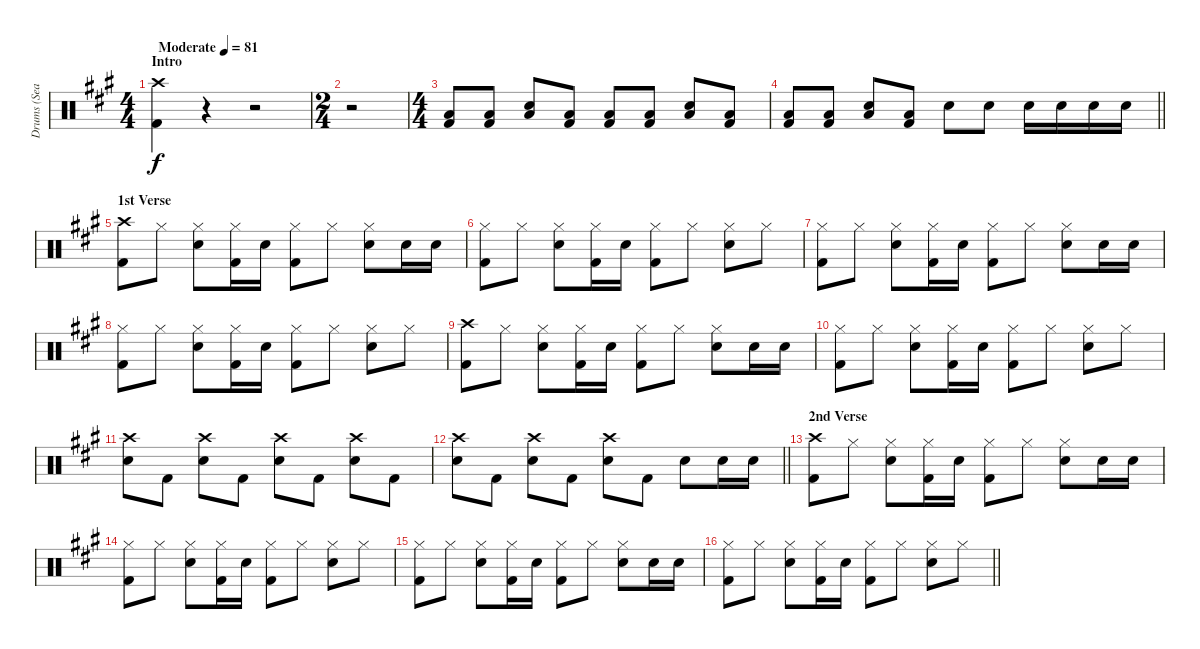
\track ("Drums (Sean)" "Drums (Sea") {instrument percussion}
\staff {score}
\articulation defaults
\ts (4 4)
\section ("" "Intro")
\tempo (81 "Moderate")
\clef neutral
\ks f#minor
("Crash high (hit)" "Kick (hit) 2").4{dy f} r.4 r.2 |
\ts (2 4)
r.2 |
\ts (4 4)
("Low Floor Tom (hit)" "Kick (hit) 2").8 ("Low Floor Tom (hit)" "Kick (hit) 2").8 ("Low Floor Tom (hit)" "Snare (hit) 2").8 ("Low Floor Tom (hit)" "Kick (hit) 2").8 ("Low Floor Tom (hit)" "Kick (hit) 2").8 ("Low Floor Tom (hit)" "Kick (hit) 2").8 ("Low Floor Tom (hit)" "Snare (hit) 2").8 ("Low Floor Tom (hit)" "Kick (hit) 2").8 |
\barLineRight lightlight
("Low Floor Tom (hit)" "Kick (hit) 2").8 ("Low Floor Tom (hit)" "Kick (hit) 2").8 ("Low Floor Tom (hit)" "Snare (hit) 2").8 ("Low Floor Tom (hit)" "Kick (hit) 2").8 "Snare (hit) 2".8 "Snare (hit) 2".8 "Snare (hit) 2".16 "Snare (hit) 2".16 "Snare (hit) 2".16 "Snare (hit) 2".16 |
\section ("" "1st Verse")
("Crash high (hit)" "Kick (hit) 2").8 "Hi-Hat (closed)".8 ("Hi-Hat (closed)" "Snare (hit) 2").8 ("Hi-Hat (closed)" "Kick (hit) 2").16 "Snare (hit) 2".16 ("Hi-Hat (closed)" "Kick (hit) 2").8 "Hi-Hat (closed)".8 ("Hi-Hat (closed)" "Snare (hit) 2").8 "Snare (hit) 2".16 "Snare (hit) 2".16 |
("Hi-Hat (closed)" "Kick (hit) 2").8 "Hi-Hat (closed)".8 ("Hi-Hat (closed)" "Snare (hit) 2").8 ("Hi-Hat (closed)" "Kick (hit) 2").16 "Snare (hit) 2".16 ("Hi-Hat (closed)" "Kick (hit) 2").8 "Hi-Hat (closed)".8 ("Hi-Hat (closed)" "Snare (hit) 2").8 "Hi-Hat (closed)".8 |
("Hi-Hat (closed)" "Kick (hit) 2").8 "Hi-Hat (closed)".8 ("Hi-Hat (closed)" "Snare (hit) 2").8 ("Hi-Hat (closed)" "Kick (hit) 2").16 "Snare (hit) 2".16 ("Hi-Hat (closed)" "Kick (hit) 2").8 "Hi-Hat (closed)".8 ("Hi-Hat (closed)" "Snare (hit) 2").8 "Snare (hit) 2".16 "Snare (hit) 2".16 |
("Hi-Hat (closed)" "Kick (hit) 2").8 "Hi-Hat (closed)".8 ("Hi-Hat (closed)" "Snare (hit) 2").8 ("Hi-Hat (closed)" "Kick (hit) 2").16 "Snare (hit) 2".16 ("Hi-Hat (closed)" "Kick (hit) 2").8 "Hi-Hat (closed)".8 ("Hi-Hat (closed)" "Snare (hit) 2").8 "Hi-Hat (closed)".8 |
("Crash high (hit)" "Kick (hit) 2").8 "Hi-Hat (closed)".8 ("Hi-Hat (closed)" "Snare (hit) 2").8 ("Hi-Hat (closed)" "Kick (hit) 2").16 "Snare (hit) 2".16 ("Hi-Hat (closed)" "Kick (hit) 2").8 "Hi-Hat (closed)".8 ("Hi-Hat (closed)" "Snare (hit) 2").8 "Snare (hit) 2".16 "Snare (hit) 2".16 |
("Hi-Hat (closed)" "Kick (hit) 2").8 "Hi-Hat (closed)".8 ("Hi-Hat (closed)" "Snare (hit) 2").8 ("Hi-Hat (closed)" "Kick (hit) 2").16 "Snare (hit) 2".16 ("Hi-Hat (closed)" "Kick (hit) 2").8 "Hi-Hat (closed)".8 ("Hi-Hat (closed)" "Snare (hit) 2").8 "Hi-Hat (closed)".8 |
("Crash high (hit)" "Snare (hit) 2").8 "Kick (hit) 2".8 ("Crash high (hit)" "Snare (hit) 2").8 "Kick (hit) 2".8 ("Crash high (hit)" "Snare (hit) 2").8 "Kick (hit) 2".8 ("Crash high (hit)" "Snare (hit) 2").8 "Kick (hit) 2".8 |
\barLineRight lightlight
("Crash high (hit)" "Snare (hit) 2").8 "Kick (hit) 2".8 ("Crash high (hit)" "Snare (hit) 2").8 "Kick (hit) 2".8 ("Crash high (hit)" "Snare (hit) 2").8 "Kick (hit) 2".8 "Snare (hit) 2".8 "Snare (hit) 2".16 "Snare (hit) 2".16 |
\section ("" "2nd Verse")
("Crash high (hit)" "Kick (hit) 2").8 "Hi-Hat (closed)".8 ("Hi-Hat (closed)" "Snare (hit) 2").8 ("Hi-Hat (closed)" "Kick (hit) 2").16 "Snare (hit) 2".16 ("Hi-Hat (closed)" "Kick (hit) 2").8 "Hi-Hat (closed)".8 ("Hi-Hat (closed)" "Snare (hit) 2").8 "Snare (hit) 2".16 "Snare (hit) 2".16 |
("Hi-Hat (closed)" "Kick (hit) 2").8 "Hi-Hat (closed)".8 ("Hi-Hat (closed)" "Snare (hit) 2").8 ("Hi-Hat (closed)" "Kick (hit) 2").16 "Snare (hit) 2".16 ("Hi-Hat (closed)" "Kick (hit) 2").8 "Hi-Hat (closed)".8 ("Hi-Hat (closed)" "Snare (hit) 2").8 "Hi-Hat (closed)".8 |
("Hi-Hat (closed)" "Kick (hit) 2").8 "Hi-Hat (closed)".8 ("Hi-Hat (closed)" "Snare (hit) 2").8 ("Hi-Hat (closed)" "Kick (hit) 2").16 "Snare (hit) 2".16 ("Hi-Hat (closed)" "Kick (hit) 2").8 "Hi-Hat (closed)".8 ("Hi-Hat (closed)" "Snare (hit) 2").8 "Snare (hit) 2".16 "Snare (hit) 2".16 |
\barLineRight lightlight
("Hi-Hat (closed)" "Kick (hit) 2").8 "Hi-Hat (closed)".8 ("Hi-Hat (closed)" "Snare (hit) 2").8 ("Hi-Hat (closed)" "Kick (hit) 2").16 "Snare (hit) 2".16 ("Hi-Hat (closed)" "Kick (hit) 2").8 "Hi-Hat (closed)".8 ("Hi-Hat (closed)" "Snare (hit) 2").8 "Hi-Hat (closed)".8
